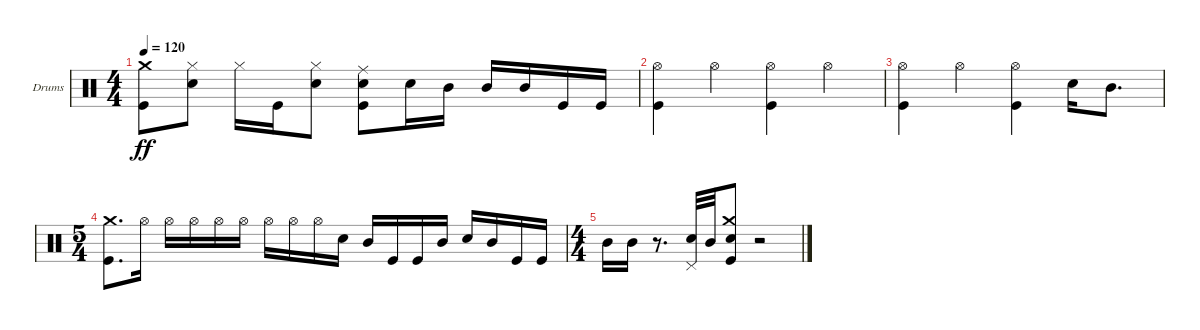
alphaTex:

\defaultSystemsLayout 4
\bracketExtendMode groupsimilarinstruments
\firstSystemTrackNameOrientation horizontal
\otherSystemsTrackNameOrientation horizontal
\track ("Drumkit" "Drums") {instrument percussion}
\staff {score}
\articulation defaults
\ts (4 4)
\tempo 120
\clef neutral
\scale
0.333333
\ks c
("Kick (hit)" "Crash medium (hit)").8{dy ff} ("Snare (hit) 2" "Hi-Hat (closed)").8 "Hi-Hat (closed)".16 "Kick (hit)".16 ("Snare (hit) 2" "Hi-Hat (closed)").8 ("Kick (hit)" "Ride (middle)" "Snare (hit) 2").8 "Snare (hit) 2".16 "Mid Tom (hit)".16 "Mid Tom (hit)".16 "Mid Tom (hit)".16 "Kick (hit)".16 "Kick (hit)".16 |
\scale
0.333333 ("Kick (hit)" "Hi-Hat (open)").4 "Hi-Hat (open)".4 ("Kick (hit)" "Hi-Hat (open)").4 "Hi-Hat (open)".4 |
("Kick (hit)" "Hi-Hat (open)").4 "Hi-Hat (open)".4 ("Kick (hit)" "Hi-Hat (open)").4 "Snare (hit) 2".16 "Mid Tom (hit)".8{d} |
\ts (5 4)
("Kick (hit)" "Crash medium (hit)").8{d} "Hi-Hat (open)".16 "Hi-Hat (open)".16 "Hi-Hat (open)".16 "Hi-Hat (open)".16 "Hi-Hat (open)".16 "Hi-Hat (open)".16 "Hi-Hat (open)".16 "Hi-Hat (open)".16 "Snare (hit) 2".16 "Mid Tom (hit)".16 "Kick (hit)".16 "Kick (hit)".16 "Mid Tom (hit)".16 "Snare (hit) 2".16 "Mid Tom (hit)".16 "Kick (hit)".16 "Kick (hit)".16 |
\ts (4 4)
"Mid Tom (hit)".16 "Mid Tom (hit)".16 r.8{d} ("Pedal Hi-Hat (hit)" "Snare (hit) 2").32 "Mid Tom (hit)".32 ("Crash medium (hit)" "Snare (hit) 2" "Kick (hit)").8 r.2
